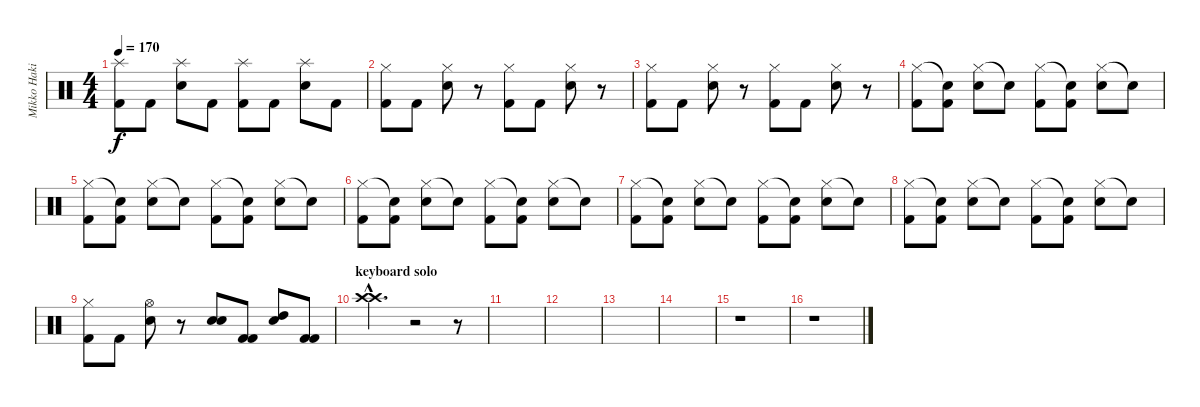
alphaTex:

\track ("Mikko Hakila - drums" "Mikko Haki") {instrument percussion}
\staff {score}
\articulation defaults
\ts (4 4)
\tempo 170
\clef neutral
\ks c
("Splash (hit)" "Kick (hit) 2").8{dy f} "Kick (hit) 2".8 ("Splash (hit)" "Snare (hit) 2").8 "Kick (hit) 2".8 ("Splash (hit)" "Kick (hit) 2").8 "Kick (hit) 2".8 ("Splash (hit)" "Snare (hit) 2").8 "Kick (hit) 2".8 |
("Hi-Hat (closed)" "Kick (hit) 2").8 "Kick (hit) 2".8 ("Hi-Hat (closed)" "Snare (hit) 2").8 r.8 ("Hi-Hat (closed)" "Kick (hit) 2").8 "Kick (hit) 2".8 ("Hi-Hat (closed)" "Snare (hit) 2").8 r.8 |
("Hi-Hat (closed)" "Kick (hit) 2").8 "Kick (hit) 2".8 ("Hi-Hat (closed)" "Snare (hit) 2").8 r.8 ("Hi-Hat (closed)" "Kick (hit) 2").8 "Kick (hit) 2".8 ("Hi-Hat (closed)" "Snare (hit) 2").8 r.8 |
("Hi-Hat (closed)" "Kick (hit) 2").8 ("Snare (hit)"{t} "Kick (hit) 2").8 ("Hi-Hat (closed)" "Snare (hit) 2").8 "Snare (hit)"{t}.8 ("Hi-Hat (closed)" "Kick (hit) 2").8 ("Snare (hit)"{t} "Kick (hit) 2").8 ("Hi-Hat (closed)" "Snare (hit) 2").8 "Snare (hit)"{t}.8 |
("Hi-Hat (closed)" "Kick (hit) 2").8 ("Snare (hit)"{t} "Kick (hit) 2").8 ("Hi-Hat (closed)" "Snare (hit) 2").8 "Snare (hit)"{t}.8 ("Hi-Hat (closed)" "Kick (hit) 2").8 ("Snare (hit)"{t} "Kick (hit) 2").8 ("Hi-Hat (closed)" "Snare (hit) 2").8 "Snare (hit)"{t}.8 |
("Hi-Hat (closed)" "Kick (hit) 2").8 ("Snare (hit)"{t} "Kick (hit) 2").8 ("Hi-Hat (closed)" "Snare (hit) 2").8 "Snare (hit)"{t}.8 ("Hi-Hat (closed)" "Kick (hit) 2").8 ("Snare (hit)"{t} "Kick (hit) 2").8 ("Hi-Hat (closed)" "Snare (hit) 2").8 "Snare (hit)"{t}.8 |
("Hi-Hat (closed)" "Kick (hit) 2").8 ("Snare (hit)"{t} "Kick (hit) 2").8 ("Hi-Hat (closed)" "Snare (hit) 2").8 "Snare (hit)"{t}.8 ("Hi-Hat (closed)" "Kick (hit) 2").8 ("Snare (hit)"{t} "Kick (hit) 2").8 ("Hi-Hat (closed)" "Snare (hit) 2").8 "Snare (hit)"{t}.8 |
("Hi-Hat (closed)" "Kick (hit) 2").8 ("Snare (hit)"{t} "Kick (hit) 2").8 ("Hi-Hat (closed)" "Snare (hit) 2").8 "Snare (hit)"{t}.8 ("Hi-Hat (closed)" "Kick (hit) 2").8 ("Snare (hit)"{t} "Kick (hit) 2").8 ("Hi-Hat (closed)" "Snare (hit) 2").8 "Snare (hit)"{t}.8 |
("Hi-Hat (closed)" "Kick (hit) 2").8 "Kick (hit) 2".8 ("Hi-Hat (open)" "Snare (hit) 2").8 r.8 ("Snare (hit) 2" "Snare (hit) 2").8 ("Kick (hit) 2" "Kick (hit) 2").8 ("High Tom (hit)" "Snare (hit) 2").8 ("Kick (hit) 2" "Kick (hit) 2").8 |
\section ("" "keyboard solo")
("Crash high (hit)"{hac} "Crash high (hit)"{hac}).4{d} r.2 r.8 |
|
|
|
|
r.1 |
r.1
